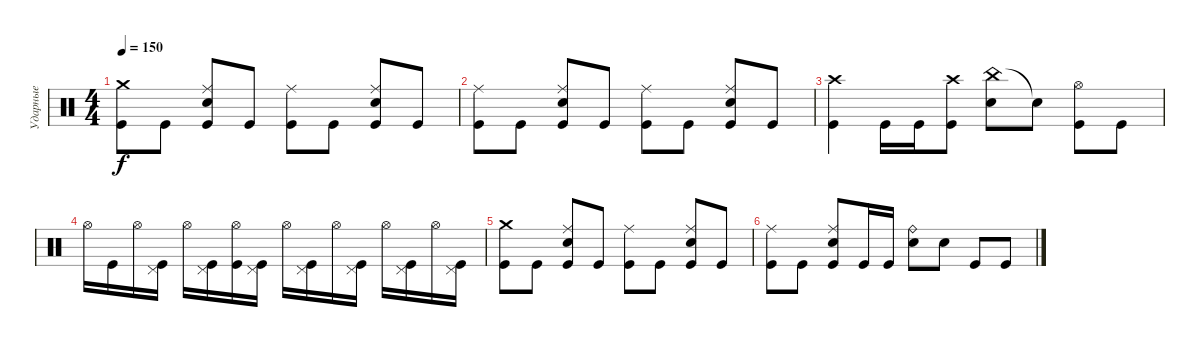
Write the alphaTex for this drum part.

\track ("Ударные" "Ударные") {instrument percussion}
\staff {score}
\articulation defaults
\ts (4 4)
\tempo 150
\clef neutral
\ks c
("Crash medium (hit)" "Kick (hit)").8{dy f} "Kick (hit)".8 ("Ride (middle)" "Electric Snare (hit)" "Kick (hit)").8 "Kick (hit)".8 ("Ride (middle)" "Kick (hit)").8 "Kick (hit)".8 ("Ride (middle)" "Electric Snare (hit)" "Kick (hit)").8 "Kick (hit)".8 |
("Ride (middle)" "Kick (hit)").8 "Kick (hit)".8 ("Ride (middle)" "Electric Snare (hit)" "Kick (hit)").8 "Kick (hit)".8 ("Ride (middle)" "Kick (hit)").8 "Kick (hit)".8 ("Ride (middle)" "Electric Snare (hit)" "Kick (hit)").8 "Kick (hit)".8 |
("Crash high (hit)" "Kick (hit)").4 "Kick (hit)".16 "Kick (hit)".16 ("Crash high (hit)" "Kick (hit)").8 ("China (hit)" "Electric Snare (hit)").8 "Snare (hit)"{t}.8 ("Hi-Hat (open)" "Kick (hit)").8 "Kick (hit)".8 |
"Hi-Hat (open)".16 "Kick (hit)".16 "Hi-Hat (open)".16 ("Pedal Hi-Hat (hit)" "Kick (hit)").16 "Hi-Hat (open)".16 ("Pedal Hi-Hat (hit)" "Kick (hit)").16 ("Hi-Hat (open)" "Kick (hit)").16 ("Pedal Hi-Hat (hit)" "Kick (hit)").16 "Hi-Hat (open)".16 ("Pedal Hi-Hat (hit)" "Kick (hit)").16 "Hi-Hat (open)".16 ("Pedal Hi-Hat (hit)" "Kick (hit)").16 "Hi-Hat (open)".16 ("Pedal Hi-Hat (hit)" "Kick (hit)").16 "Hi-Hat (open)".16 ("Pedal Hi-Hat (hit)" "Kick (hit)").16 |
("Crash medium (hit)" "Kick (hit)").8 "Kick (hit)".8 ("Ride (middle)" "Electric Snare (hit)" "Kick (hit)").8 "Kick (hit)".8 ("Ride (middle)" "Kick (hit)").8 "Kick (hit)".8 ("Ride (middle)" "Electric Snare (hit)" "Kick (hit)").8 "Kick (hit)".8 |
("Ride (middle)" "Kick (hit)").8 "Kick (hit)".8 ("Ride (middle)" "Electric Snare (hit)" "Kick (hit)").8 "Kick (hit)".16 "Kick (hit)".16 ("Ride (bell)" "Electric Snare (hit)").8 "Electric Snare (hit)".8 "Kick (hit)".8 "Kick (hit)".8
